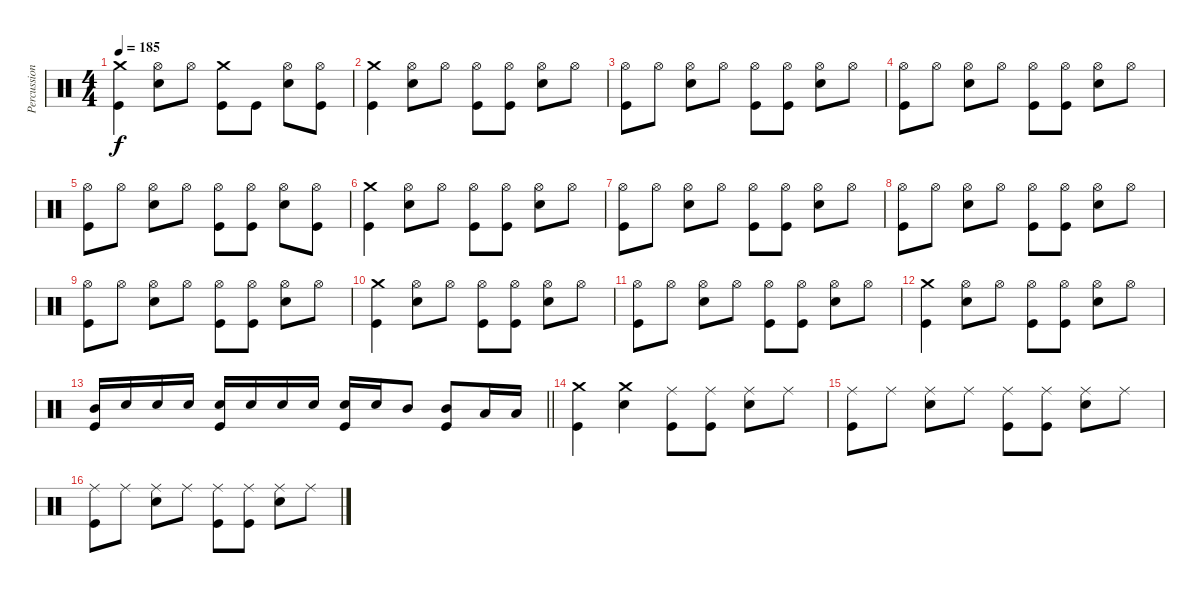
\track ("Percussion" "Percussion") {instrument percussion}
\staff {score}
\articulation defaults
\ts (4 4)
\tempo 185
\clef neutral
\ks c
("Crash medium (hit)" "Kick (hit)").4{dy f} ("Hi-Hat (open)" "Electric Snare (hit)").8 "Hi-Hat (open)".8 ("Crash medium (hit)" "Kick (hit)").8 "Kick (hit)".8 ("Hi-Hat (open)" "Electric Snare (hit)").8 ("Hi-Hat (open)" "Kick (hit)").8 |
("Crash medium (hit)" "Kick (hit)").4 ("Hi-Hat (open)" "Electric Snare (hit)").8 "Hi-Hat (open)".8 ("Hi-Hat (open)" "Kick (hit)").8 ("Hi-Hat (open)" "Kick (hit)").8 ("Hi-Hat (open)" "Electric Snare (hit)").8 "Hi-Hat (open)".8 |
("Hi-Hat (open)" "Kick (hit)").8 "Hi-Hat (open)".8 ("Hi-Hat (open)" "Electric Snare (hit)").8 "Hi-Hat (open)".8 ("Hi-Hat (open)" "Kick (hit)").8 ("Hi-Hat (open)" "Kick (hit)").8 ("Hi-Hat (open)" "Electric Snare (hit)").8 "Hi-Hat (open)".8 |
("Hi-Hat (open)" "Kick (hit)").8 "Hi-Hat (open)".8 ("Hi-Hat (open)" "Electric Snare (hit)").8 "Hi-Hat (open)".8 ("Hi-Hat (open)" "Kick (hit)").8 ("Hi-Hat (open)" "Kick (hit)").8 ("Hi-Hat (open)" "Electric Snare (hit)").8 "Hi-Hat (open)".8 |
("Hi-Hat (open)" "Kick (hit)").8 "Hi-Hat (open)".8 ("Hi-Hat (open)" "Electric Snare (hit)").8 "Hi-Hat (open)".8 ("Hi-Hat (open)" "Kick (hit)").8 ("Hi-Hat (open)" "Kick (hit)").8 ("Hi-Hat (open)" "Electric Snare (hit)").8 ("Hi-Hat (open)" "Kick (hit)").8 |
("Crash medium (hit)" "Kick (hit)").4 ("Hi-Hat (open)" "Electric Snare (hit)").8 "Hi-Hat (open)".8 ("Hi-Hat (open)" "Kick (hit)").8 ("Hi-Hat (open)" "Kick (hit)").8 ("Hi-Hat (open)" "Electric Snare (hit)").8 "Hi-Hat (open)".8 |
("Hi-Hat (open)" "Kick (hit)").8 "Hi-Hat (open)".8 ("Hi-Hat (open)" "Electric Snare (hit)").8 "Hi-Hat (open)".8 ("Hi-Hat (open)" "Kick (hit)").8 ("Hi-Hat (open)" "Kick (hit)").8 ("Hi-Hat (open)" "Electric Snare (hit)").8 "Hi-Hat (open)".8 |
("Hi-Hat (open)" "Kick (hit)").8 "Hi-Hat (open)".8 ("Hi-Hat (open)" "Electric Snare (hit)").8 "Hi-Hat (open)".8 ("Hi-Hat (open)" "Kick (hit)").8 ("Hi-Hat (open)" "Kick (hit)").8 ("Hi-Hat (open)" "Electric Snare (hit)").8 "Hi-Hat (open)".8 |
("Hi-Hat (open)" "Kick (hit)").8 "Hi-Hat (open)".8 ("Hi-Hat (open)" "Electric Snare (hit)").8 "Hi-Hat (open)".8 ("Hi-Hat (open)" "Kick (hit)").8 ("Hi-Hat (open)" "Kick (hit)").8 ("Hi-Hat (open)" "Electric Snare (hit)").8 "Hi-Hat (open)".8 |
("Crash medium (hit)" "Kick (hit)").4 ("Hi-Hat (open)" "Electric Snare (hit)").8 "Hi-Hat (open)".8 ("Hi-Hat (open)" "Kick (hit)").8 ("Hi-Hat (open)" "Kick (hit)").8 ("Hi-Hat (open)" "Electric Snare (hit)").8 "Hi-Hat (open)".8 |
("Hi-Hat (open)" "Kick (hit)").8 "Hi-Hat (open)".8 ("Hi-Hat (open)" "Electric Snare (hit)").8 "Hi-Hat (open)".8 ("Hi-Hat (open)" "Kick (hit)").8 ("Hi-Hat (open)" "Kick (hit)").8 ("Hi-Hat (open)" "Electric Snare (hit)").8 "Hi-Hat (open)".8 |
("Crash medium (hit)" "Kick (hit)").4 ("Hi-Hat (open)" "Electric Snare (hit)").8 "Hi-Hat (open)".8 ("Hi-Hat (open)" "Kick (hit)").8 ("Hi-Hat (open)" "Kick (hit)").8 ("Hi-Hat (open)" "Electric Snare (hit)").8 "Hi-Hat (open)".8 |
\barLineRight lightlight
("Mid Tom (hit)" "Kick (hit)").16 "Electric Snare (hit)".16 "Electric Snare (hit)".16 "Electric Snare (hit)".16 ("Electric Snare (hit)" "Kick (hit)").16 "Electric Snare (hit)".16 "Electric Snare (hit)".16 "Electric Snare (hit)".16 ("Electric Snare (hit)" "Kick (hit)").16 "Electric Snare (hit)".16 "Mid Tom (hit)".8 ("Mid Tom (hit)" "Kick (hit)").8 "Low Tom (hit)".16 "Low Tom (hit)".16 |
("Crash medium (hit)" "Kick (hit)").4 ("Crash medium (hit)" "Electric Snare (hit)").4 ("Ride (middle)" "Kick (hit)").8 ("Ride (middle)" "Kick (hit)").8 ("Ride (middle)" "Electric Snare (hit)").8 "Ride (middle)".8 |
("Ride (middle)" "Kick (hit)").8 "Ride (middle)".8 ("Ride (middle)" "Electric Snare (hit)").8 "Ride (middle)".8 ("Ride (middle)" "Kick (hit)").8 ("Ride (middle)" "Kick (hit)").8 ("Ride (middle)" "Electric Snare (hit)").8 "Ride (middle)".8 |
("Ride (middle)" "Kick (hit)").8 "Ride (middle)".8 ("Ride (middle)" "Electric Snare (hit)").8 "Ride (middle)".8 ("Ride (middle)" "Kick (hit)").8 ("Ride (middle)" "Kick (hit)").8 ("Ride (middle)" "Electric Snare (hit)").8 "Ride (middle)".8
